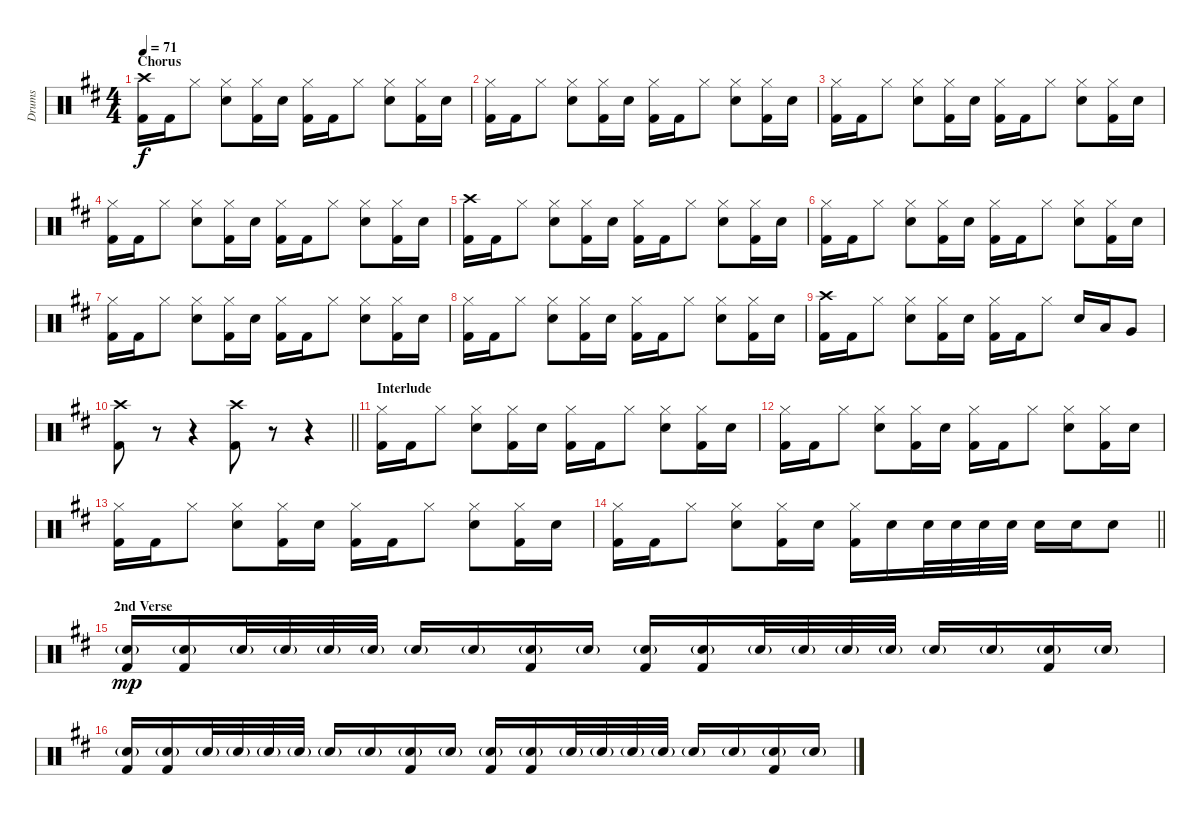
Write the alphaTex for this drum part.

\track ("Drums" "Drums") {instrument percussion}
\staff {score}
\articulation defaults
\ts (4 4)
\section ("" "Chorus")
\tempo 71
\clef neutral
\ks bminor
("Crash high (hit)" "Kick (hit) 2").16{dy f} "Kick (hit) 2".16 "Hi-Hat (closed)".8 ("Hi-Hat (closed)" "Snare (hit) 2").8 ("Hi-Hat (closed)" "Kick (hit) 2").16 "Snare (hit) 2".16 ("Hi-Hat (closed)" "Kick (hit) 2").16 "Kick (hit) 2".16 "Hi-Hat (closed)".8 ("Hi-Hat (closed)" "Snare (hit) 2").8 ("Hi-Hat (closed)" "Kick (hit) 2").16 "Snare (hit) 2".16 |
("Hi-Hat (closed)" "Kick (hit) 2").16 "Kick (hit) 2".16 "Hi-Hat (closed)".8 ("Hi-Hat (closed)" "Snare (hit) 2").8 ("Hi-Hat (closed)" "Kick (hit) 2").16 "Snare (hit) 2".16 ("Hi-Hat (closed)" "Kick (hit) 2").16 "Kick (hit) 2".16 "Hi-Hat (closed)".8 ("Hi-Hat (closed)" "Snare (hit) 2").8 ("Hi-Hat (closed)" "Kick (hit) 2").16 "Snare (hit) 2".16 |
("Hi-Hat (closed)" "Kick (hit) 2").16 "Kick (hit) 2".16 "Hi-Hat (closed)".8 ("Hi-Hat (closed)" "Snare (hit) 2").8 ("Hi-Hat (closed)" "Kick (hit) 2").16 "Snare (hit) 2".16 ("Hi-Hat (closed)" "Kick (hit) 2").16 "Kick (hit) 2".16 "Hi-Hat (closed)".8 ("Hi-Hat (closed)" "Snare (hit) 2").8 ("Hi-Hat (closed)" "Kick (hit) 2").16 "Snare (hit) 2".16 |
("Hi-Hat (closed)" "Kick (hit) 2").16 "Kick (hit) 2".16 "Hi-Hat (closed)".8 ("Hi-Hat (closed)" "Snare (hit) 2").8 ("Hi-Hat (closed)" "Kick (hit) 2").16 "Snare (hit) 2".16 ("Hi-Hat (closed)" "Kick (hit) 2").16 "Kick (hit) 2".16 "Hi-Hat (closed)".8 ("Hi-Hat (closed)" "Snare (hit) 2").8 ("Hi-Hat (closed)" "Kick (hit) 2").16 "Snare (hit) 2".16 |
("Crash high (hit)" "Kick (hit) 2").16 "Kick (hit) 2".16 "Hi-Hat (closed)".8 ("Hi-Hat (closed)" "Snare (hit) 2").8 ("Hi-Hat (closed)" "Kick (hit) 2").16 "Snare (hit) 2".16 ("Hi-Hat (closed)" "Kick (hit) 2").16 "Kick (hit) 2".16 "Hi-Hat (closed)".8 ("Hi-Hat (closed)" "Snare (hit) 2").8 ("Hi-Hat (closed)" "Kick (hit) 2").16 "Snare (hit) 2".16 |
("Hi-Hat (closed)" "Kick (hit) 2").16 "Kick (hit) 2".16 "Hi-Hat (closed)".8 ("Hi-Hat (closed)" "Snare (hit) 2").8 ("Hi-Hat (closed)" "Kick (hit) 2").16 "Snare (hit) 2".16 ("Hi-Hat (closed)" "Kick (hit) 2").16 "Kick (hit) 2".16 "Hi-Hat (closed)".8 ("Hi-Hat (closed)" "Snare (hit) 2").8 ("Hi-Hat (closed)" "Kick (hit) 2").16 "Snare (hit) 2".16 |
("Hi-Hat (closed)" "Kick (hit) 2").16 "Kick (hit) 2".16 "Hi-Hat (closed)".8 ("Hi-Hat (closed)" "Snare (hit) 2").8 ("Hi-Hat (closed)" "Kick (hit) 2").16 "Snare (hit) 2".16 ("Hi-Hat (closed)" "Kick (hit) 2").16 "Kick (hit) 2".16 "Hi-Hat (closed)".8 ("Hi-Hat (closed)" "Snare (hit) 2").8 ("Hi-Hat (closed)" "Kick (hit) 2").16 "Snare (hit) 2".16 |
("Hi-Hat (closed)" "Kick (hit) 2").16 "Kick (hit) 2".16 "Hi-Hat (closed)".8 ("Hi-Hat (closed)" "Snare (hit) 2").8 ("Hi-Hat (closed)" "Kick (hit) 2").16 "Snare (hit) 2".16 ("Hi-Hat (closed)" "Kick (hit) 2").16 "Kick (hit) 2".16 "Hi-Hat (closed)".8 ("Hi-Hat (closed)" "Snare (hit) 2").8 ("Hi-Hat (closed)" "Kick (hit) 2").16 "Snare (hit) 2".16 |
("Crash high (hit)" "Kick (hit) 2").16 "Kick (hit) 2".16 "Hi-Hat (closed)".8 ("Hi-Hat (closed)" "Snare (hit) 2").8 ("Hi-Hat (closed)" "Kick (hit) 2").16 "Snare (hit) 2".16 ("Hi-Hat (closed)" "Kick (hit) 2").16 "Kick (hit) 2".16 "Hi-Hat (closed)".8 "Snare (hit) 2".16 "Low Tom (hit)".16 "Very Low Tom (hit)".8 |
\barLineRight lightlight
("Crash high (hit)" "Kick (hit) 2").8 r.8 r.4 ("Crash high (hit)" "Kick (hit) 2").8 r.8 r.4 |
\section ("" "Interlude")
("Hi-Hat (closed)" "Kick (hit) 2").16 "Kick (hit) 2".16 "Hi-Hat (closed)".8 ("Hi-Hat (closed)" "Snare (hit) 2").8 ("Hi-Hat (closed)" "Kick (hit) 2").16 "Snare (hit) 2".16 ("Hi-Hat (closed)" "Kick (hit) 2").16 "Kick (hit) 2".16 "Hi-Hat (closed)".8 ("Hi-Hat (closed)" "Snare (hit) 2").8 ("Hi-Hat (closed)" "Kick (hit) 2").16 "Snare (hit) 2".16 |
("Hi-Hat (closed)" "Kick (hit) 2").16 "Kick (hit) 2".16 "Hi-Hat (closed)".8 ("Hi-Hat (closed)" "Snare (hit) 2").8 ("Hi-Hat (closed)" "Kick (hit) 2").16 "Snare (hit) 2".16 ("Hi-Hat (closed)" "Kick (hit) 2").16 "Kick (hit) 2".16 "Hi-Hat (closed)".8 ("Hi-Hat (closed)" "Snare (hit) 2").8 ("Hi-Hat (closed)" "Kick (hit) 2").16 "Snare (hit) 2".16 |
("Hi-Hat (closed)" "Kick (hit) 2").16 "Kick (hit) 2".16 "Hi-Hat (closed)".8 ("Hi-Hat (closed)" "Snare (hit) 2").8 ("Hi-Hat (closed)" "Kick (hit) 2").16 "Snare (hit) 2".16 ("Hi-Hat (closed)" "Kick (hit) 2").16 "Kick (hit) 2".16 "Hi-Hat (closed)".8 ("Hi-Hat (closed)" "Snare (hit) 2").8 ("Hi-Hat (closed)" "Kick (hit) 2").16 "Snare (hit) 2".16 |
\barLineRight lightlight
("Hi-Hat (closed)" "Kick (hit) 2").16 "Kick (hit) 2".16 "Hi-Hat (closed)".8 ("Hi-Hat (closed)" "Snare (hit) 2").8 ("Hi-Hat (closed)" "Kick (hit) 2").16 "Snare (hit) 2".16 ("Hi-Hat (closed)" "Kick (hit) 2").16 "Snare (hit) 2".16 "Snare (hit) 2".32 "Snare (hit) 2".32 "Snare (hit) 2".32 "Snare (hit) 2".32 "Snare (hit) 2".16 "Snare (hit) 2".16 "Snare (hit) 2".8 |
\section ("" "2nd Verse")
("Snare (hit) 2"{g} "Kick (hit) 2").16{dy mp} ("Snare (hit) 2"{g} "Kick (hit) 2").16 "Snare (hit) 2"{g}.32 "Snare (hit) 2"{g}.32 "Snare (hit) 2"{g}.32 "Snare (hit) 2"{g}.32 "Snare (hit) 2"{g}.16 "Snare (hit) 2"{g}.16 ("Snare (hit) 2"{g} "Kick (hit) 2").16 "Snare (hit) 2"{g}.16 ("Snare (hit) 2"{g} "Kick (hit) 2").16 ("Snare (hit) 2"{g} "Kick (hit) 2").16 "Snare (hit) 2"{g}.32 "Snare (hit) 2"{g}.32 "Snare (hit) 2"{g}.32 "Snare (hit) 2"{g}.32 "Snare (hit) 2"{g}.16 "Snare (hit) 2"{g}.16 ("Snare (hit) 2"{g} "Kick (hit) 2").16 "Snare (hit) 2"{g}.16 |
("Snare (hit) 2"{g} "Kick (hit) 2").16 ("Snare (hit) 2"{g} "Kick (hit) 2").16 "Snare (hit) 2"{g}.32 "Snare (hit) 2"{g}.32 "Snare (hit) 2"{g}.32 "Snare (hit) 2"{g}.32 "Snare (hit) 2"{g}.16 "Snare (hit) 2"{g}.16 ("Snare (hit) 2"{g} "Kick (hit) 2").16 "Snare (hit) 2"{g}.16 ("Snare (hit) 2"{g} "Kick (hit) 2").16 ("Snare (hit) 2"{g} "Kick (hit) 2").16 "Snare (hit) 2"{g}.32 "Snare (hit) 2"{g}.32 "Snare (hit) 2"{g}.32 "Snare (hit) 2"{g}.32 "Snare (hit) 2"{g}.16 "Snare (hit) 2"{g}.16 ("Snare (hit) 2"{g} "Kick (hit) 2").16 "Snare (hit) 2"{g}.16
